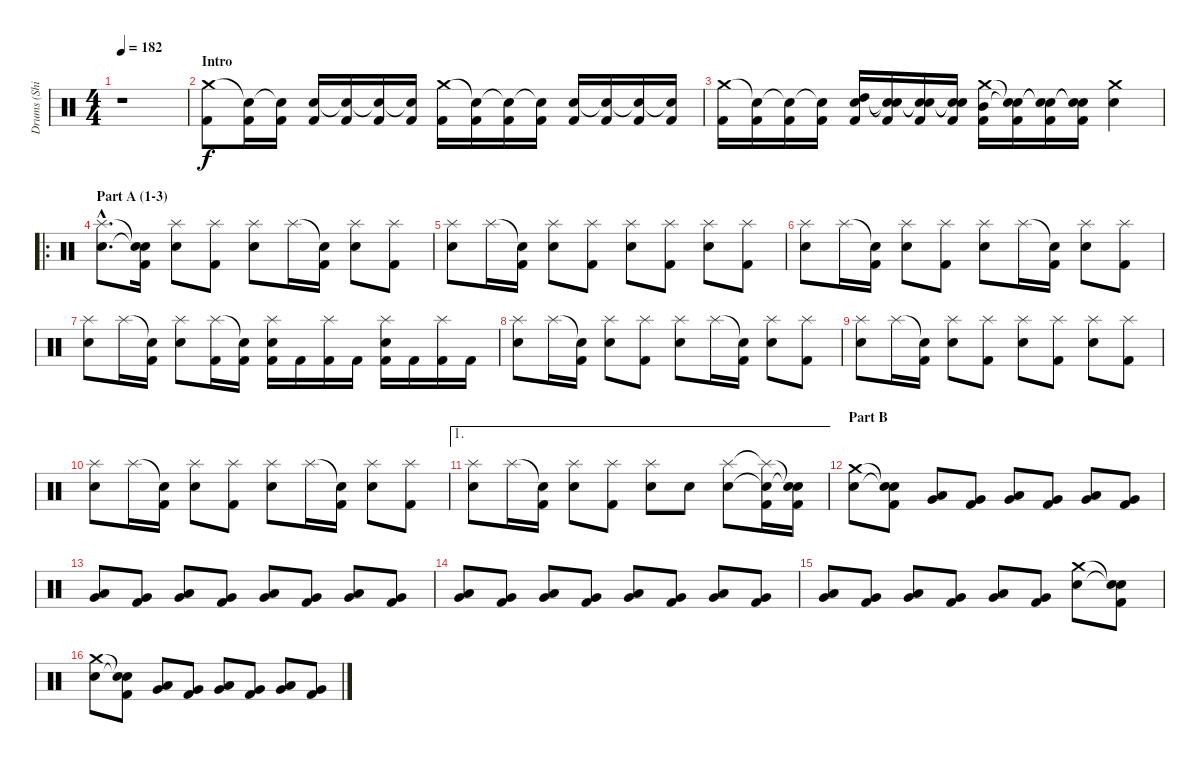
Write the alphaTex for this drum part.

\track ("Drums (Shinya)" "Drums (Shi") {instrument percussion}
\staff {score}
\articulation defaults
\ts (4 4)
\tempo 182
\clef neutral
\ks c
r.1{dy f} |
\section ("" "Intro")
("Crash medium (hit)" "Kick (hit) 2").8 ("Snare (hit)"{t} "Kick (hit) 2").16 ("Snare (hit)"{t} "Kick (hit) 2").16 ("Electric Snare (hit)" "Kick (hit) 2").16 ("Snare (hit)"{t} "Kick (hit) 2").16 ("Snare (hit)"{t} "Kick (hit) 2").16 ("Snare (hit)"{t} "Kick (hit) 2").16 ("Crash medium (hit)" "Kick (hit) 2").16 ("Snare (hit)"{t} "Kick (hit) 2").16 ("Snare (hit)"{t} "Kick (hit) 2").16 ("Snare (hit)"{t} "Kick (hit) 2").16 ("Electric Snare (hit)" "Kick (hit) 2").16 ("Snare (hit)"{t} "Kick (hit) 2").16 ("Snare (hit)"{t} "Kick (hit) 2").16 ("Snare (hit)"{t} "Kick (hit) 2").16 |
("Crash medium (hit)" "Kick (hit) 2").16 ("Snare (hit)"{t} "Kick (hit) 2").16 ("Snare (hit)"{t} "Kick (hit) 2").16 ("Snare (hit)"{t} "Kick (hit) 2").16 ("High Tom (hit)" "Electric Snare (hit)" "Kick (hit) 2").16 ("Snare (hit)"{t} "Snare (hit)"{t} "Kick (hit) 2").16 ("Snare (hit)"{t} "Snare (hit)"{t} "Kick (hit) 2").16 ("Snare (hit)"{t} "Snare (hit)"{t} "Kick (hit) 2").16 ("Crash medium (hit)" "Mid Tom (hit)" "Kick (hit) 2").16 ("Snare (hit)"{t} "Snare (hit)"{t} "Kick (hit) 2").16 ("Snare (hit)"{t} "Snare (hit)"{t} "Kick (hit) 2").16 ("Snare (hit)"{t} "Snare (hit)"{t} "Kick (hit) 2").16 ("Crash medium (hit)" "Electric Snare (hit)").4 |
\ro
\section ("" "Part A (1-3)")
("Splash (hit)"{hac} "Electric Snare (hit)"{hac}).8{d} ("Snare (hit)"{t} "Snare (hit)"{t} "Kick (hit) 2").16 ("Splash (hit)" "Electric Snare (hit)").8 ("Splash (hit)" "Kick (hit) 2").8 ("Splash (hit)" "Electric Snare (hit)").8 "Splash (hit)".16 ("Snare (hit)"{t} "Kick (hit) 2").16 ("Splash (hit)" "Electric Snare (hit)").8 ("Splash (hit)" "Kick (hit) 2").8 |
("Splash (hit)" "Electric Snare (hit)").8 "Splash (hit)".16 ("Snare (hit)"{t} "Kick (hit) 2").16 ("Splash (hit)" "Electric Snare (hit)").8 ("Splash (hit)" "Kick (hit) 2").8 ("Splash (hit)" "Electric Snare (hit)").8 ("Splash (hit)" "Kick (hit) 2").8 ("Splash (hit)" "Electric Snare (hit)").8 ("Splash (hit)" "Kick (hit) 2").8 |
("Splash (hit)" "Electric Snare (hit)").8 "Splash (hit)".16 ("Snare (hit)"{t} "Kick (hit) 2").16 ("Splash (hit)" "Electric Snare (hit)").8 ("Splash (hit)" "Kick (hit) 2").8 ("Splash (hit)" "Electric Snare (hit)").8 "Splash (hit)".16 ("Snare (hit)"{t} "Kick (hit) 2").16 ("Splash (hit)" "Electric Snare (hit)").8 ("Splash (hit)" "Kick (hit) 2").8 |
("Splash (hit)" "Electric Snare (hit)").8 "Splash (hit)".16 ("Snare (hit)"{t} "Kick (hit) 2").16 ("Splash (hit)" "Electric Snare (hit)").8 ("Splash (hit)" "Kick (hit) 2").16 ("Snare (hit)"{t} "Kick (hit) 2").16 ("Splash (hit)" "Electric Snare (hit)" "Kick (hit) 2").16 "Kick (hit) 2".16 ("Splash (hit)" "Kick (hit) 2").16 "Kick (hit) 2".16 ("Splash (hit)" "Electric Snare (hit)" "Kick (hit) 2").16 "Kick (hit) 2".16 ("Splash (hit)" "Kick (hit) 2").16 "Kick (hit) 2".16 |
("Splash (hit)" "Electric Snare (hit)").8 "Splash (hit)".16 ("Snare (hit)"{t} "Kick (hit) 2").16 ("Splash (hit)" "Electric Snare (hit)").8 ("Splash (hit)" "Kick (hit) 2").8 ("Splash (hit)" "Electric Snare (hit)").8 "Splash (hit)".16 ("Snare (hit)"{t} "Kick (hit) 2").16 ("Splash (hit)" "Electric Snare (hit)").8 ("Splash (hit)" "Kick (hit) 2").8 |
("Splash (hit)" "Electric Snare (hit)").8 "Splash (hit)".16 ("Snare (hit)"{t} "Kick (hit) 2").16 ("Splash (hit)" "Electric Snare (hit)").8 ("Splash (hit)" "Kick (hit) 2").8 ("Splash (hit)" "Electric Snare (hit)").8 ("Splash (hit)" "Kick (hit) 2").8 ("Splash (hit)" "Electric Snare (hit)").8 ("Splash (hit)" "Kick (hit) 2").8 |
("Splash (hit)" "Electric Snare (hit)").8 "Splash (hit)".16 ("Snare (hit)"{t} "Kick (hit) 2").16 ("Splash (hit)" "Electric Snare (hit)").8 ("Splash (hit)" "Kick (hit) 2").8 ("Splash (hit)" "Electric Snare (hit)").8 "Splash (hit)".16 ("Snare (hit)"{t} "Kick (hit) 2").16 ("Splash (hit)" "Electric Snare (hit)").8 ("Splash (hit)" "Kick (hit) 2").8 |
\ae 1
("Splash (hit)" "Electric Snare (hit)").8 "Splash (hit)".16 ("Snare (hit)"{t} "Kick (hit) 2").16 ("Splash (hit)" "Electric Snare (hit)").8 ("Splash (hit)" "Kick (hit) 2").8 ("Splash (hit)" "Electric Snare (hit)").8 "Electric Snare (hit)".8 ("Splash (hit)" "Electric Snare (hit)").8 ("Splash (hit)"{t} "Snare (hit)"{t} "Kick (hit) 2").16 ("Snare (hit)"{t} "Snare (hit)"{t} "Kick (hit) 2").16 |
\section ("" "Part B")
("Crash medium (hit)" "Electric Snare (hit)").8 ("Snare (hit)"{t} "Snare (hit)"{t} "Kick (hit) 2").8 ("Low Tom (hit)" "Very Low Tom (hit)").8 ("Very Low Tom (hit)" "Kick (hit) 2").8 ("Low Tom (hit)" "Very Low Tom (hit)").8 ("Very Low Tom (hit)" "Kick (hit) 2").8 ("Low Tom (hit)" "Very Low Tom (hit)").8 ("Very Low Tom (hit)" "Kick (hit) 2").8 |
("Low Tom (hit)" "Very Low Tom (hit)").8 ("Very Low Tom (hit)" "Kick (hit) 2").8 ("Low Tom (hit)" "Very Low Tom (hit)").8 ("Very Low Tom (hit)" "Kick (hit) 2").8 ("Low Tom (hit)" "Very Low Tom (hit)").8 ("Very Low Tom (hit)" "Kick (hit) 2").8 ("Low Tom (hit)" "Very Low Tom (hit)").8 ("Very Low Tom (hit)" "Kick (hit) 2").8 |
("Low Tom (hit)" "Very Low Tom (hit)").8 ("Very Low Tom (hit)" "Kick (hit) 2").8 ("Low Tom (hit)" "Very Low Tom (hit)").8 ("Very Low Tom (hit)" "Kick (hit) 2").8 ("Low Tom (hit)" "Very Low Tom (hit)").8 ("Very Low Tom (hit)" "Kick (hit) 2").8 ("Low Tom (hit)" "Very Low Tom (hit)").8 ("Very Low Tom (hit)" "Kick (hit) 2").8 |
("Low Tom (hit)" "Very Low Tom (hit)").8 ("Very Low Tom (hit)" "Kick (hit) 2").8 ("Low Tom (hit)" "Very Low Tom (hit)").8 ("Very Low Tom (hit)" "Kick (hit) 2").8 ("Low Tom (hit)" "Very Low Tom (hit)").8 ("Very Low Tom (hit)" "Kick (hit) 2").8 ("Crash medium (hit)" "Electric Snare (hit)").8 ("Snare (hit)"{t} "Snare (hit)"{t} "Kick (hit) 2").8 |
("Crash medium (hit)" "Electric Snare (hit)").8 ("Snare (hit)"{t} "Snare (hit)"{t} "Kick (hit) 2").8 ("Low Tom (hit)" "Very Low Tom (hit)").8 ("Very Low Tom (hit)" "Kick (hit) 2").8 ("Low Tom (hit)" "Very Low Tom (hit)").8 ("Very Low Tom (hit)" "Kick (hit) 2").8 ("Low Tom (hit)" "Very Low Tom (hit)").8 ("Very Low Tom (hit)" "Kick (hit) 2").8
